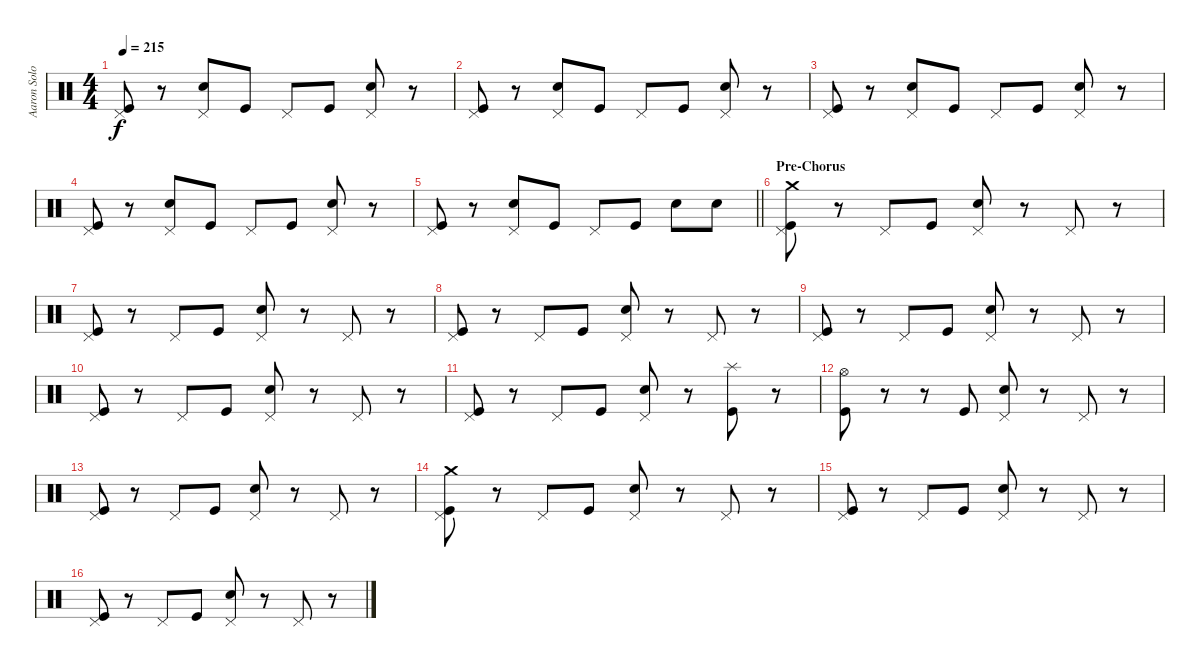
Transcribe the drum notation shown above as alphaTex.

\track ("Aaron Solowoniuk" "Aaron Solo") {instrument percussion}
\staff {score}
\articulation defaults
\ts (4 4)
\tempo 215
\clef neutral
\ks c
("Pedal Hi-Hat (hit)" "Kick (hit)").8{dy f} r.8 ("Pedal Hi-Hat (hit)" "Electric Snare (hit)").8 "Kick (hit)".8 "Pedal Hi-Hat (hit)".8 "Kick (hit)".8 ("Pedal Hi-Hat (hit)" "Electric Snare (hit)").8 r.8 |
("Pedal Hi-Hat (hit)" "Kick (hit)").8 r.8 ("Pedal Hi-Hat (hit)" "Electric Snare (hit)").8 "Kick (hit)".8 "Pedal Hi-Hat (hit)".8 "Kick (hit)".8 ("Pedal Hi-Hat (hit)" "Electric Snare (hit)").8 r.8 |
("Pedal Hi-Hat (hit)" "Kick (hit)").8 r.8 ("Pedal Hi-Hat (hit)" "Electric Snare (hit)").8 "Kick (hit)".8 "Pedal Hi-Hat (hit)".8 "Kick (hit)".8 ("Pedal Hi-Hat (hit)" "Electric Snare (hit)").8 r.8 |
("Pedal Hi-Hat (hit)" "Kick (hit)").8 r.8 ("Pedal Hi-Hat (hit)" "Electric Snare (hit)").8 "Kick (hit)".8 "Pedal Hi-Hat (hit)".8 "Kick (hit)".8 ("Pedal Hi-Hat (hit)" "Electric Snare (hit)").8 r.8 |
\barLineRight lightlight
("Pedal Hi-Hat (hit)" "Kick (hit)").8 r.8 ("Pedal Hi-Hat (hit)" "Electric Snare (hit)").8 "Kick (hit)".8 "Pedal Hi-Hat (hit)".8 "Kick (hit)".8 "Electric Snare (hit)".8 "Electric Snare (hit)".8 |
\section ("" "Pre-Chorus")
("Crash medium (hit)" "Pedal Hi-Hat (hit)" "Kick (hit)").8 r.8 "Pedal Hi-Hat (hit)".8 "Kick (hit)".8 ("Pedal Hi-Hat (hit)" "Electric Snare (hit)").8 r.8 "Pedal Hi-Hat (hit)".8 r.8 |
("Pedal Hi-Hat (hit)" "Kick (hit)").8 r.8 "Pedal Hi-Hat (hit)".8 "Kick (hit)".8 ("Pedal Hi-Hat (hit)" "Electric Snare (hit)").8 r.8 "Pedal Hi-Hat (hit)".8 r.8 |
("Pedal Hi-Hat (hit)" "Kick (hit)").8 r.8 "Pedal Hi-Hat (hit)".8 "Kick (hit)".8 ("Pedal Hi-Hat (hit)" "Electric Snare (hit)").8 r.8 "Pedal Hi-Hat (hit)".8 r.8 |
("Pedal Hi-Hat (hit)" "Kick (hit)").8 r.8 "Pedal Hi-Hat (hit)".8 "Kick (hit)".8 ("Pedal Hi-Hat (hit)" "Electric Snare (hit)").8 r.8 "Pedal Hi-Hat (hit)".8 r.8 |
("Pedal Hi-Hat (hit)" "Kick (hit)").8 r.8 "Pedal Hi-Hat (hit)".8 "Kick (hit)".8 ("Pedal Hi-Hat (hit)" "Electric Snare (hit)").8 r.8 "Pedal Hi-Hat (hit)".8 r.8 |
("Pedal Hi-Hat (hit)" "Kick (hit)").8 r.8 "Pedal Hi-Hat (hit)".8 "Kick (hit)".8 ("Pedal Hi-Hat (hit)" "Electric Snare (hit)").8 r.8 ("Splash (hit)" "Kick (hit)").8 r.8 |
("Hi-Hat (open)" "Kick (hit)").8 r.8 r.8 "Kick (hit)".8 ("Pedal Hi-Hat (hit)" "Electric Snare (hit)").8 r.8 "Pedal Hi-Hat (hit)".8 r.8 |
("Pedal Hi-Hat (hit)" "Kick (hit)").8 r.8 "Pedal Hi-Hat (hit)".8 "Kick (hit)".8 ("Pedal Hi-Hat (hit)" "Electric Snare (hit)").8 r.8 "Pedal Hi-Hat (hit)".8 r.8 |
("Crash medium (hit)" "Pedal Hi-Hat (hit)" "Kick (hit)").8 r.8 "Pedal Hi-Hat (hit)".8 "Kick (hit)".8 ("Pedal Hi-Hat (hit)" "Electric Snare (hit)").8 r.8 "Pedal Hi-Hat (hit)".8 r.8 |
("Pedal Hi-Hat (hit)" "Kick (hit)").8 r.8 "Pedal Hi-Hat (hit)".8 "Kick (hit)".8 ("Pedal Hi-Hat (hit)" "Electric Snare (hit)").8 r.8 "Pedal Hi-Hat (hit)".8 r.8 |
("Pedal Hi-Hat (hit)" "Kick (hit)").8 r.8 "Pedal Hi-Hat (hit)".8 "Kick (hit)".8 ("Pedal Hi-Hat (hit)" "Electric Snare (hit)").8 r.8 "Pedal Hi-Hat (hit)".8 r.8
